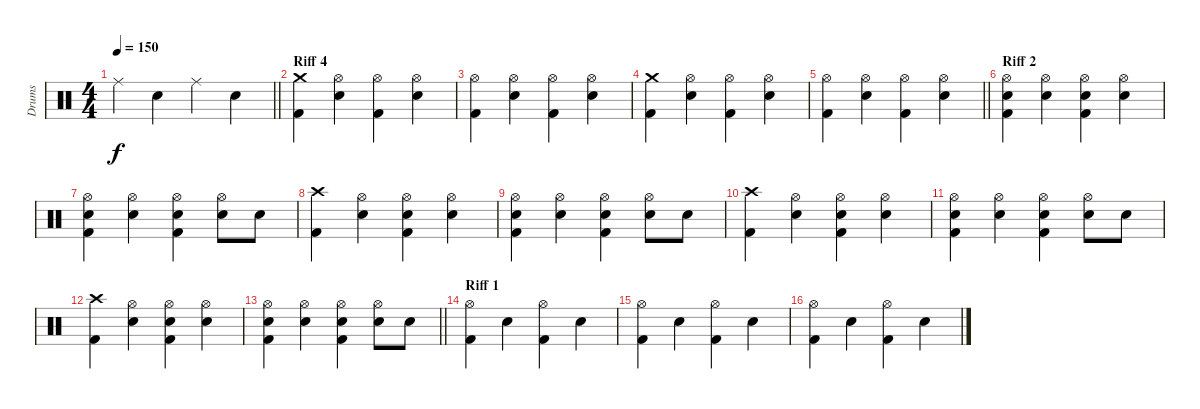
\track ("Drums" "Drums") {instrument percussion}
\staff
\articulation defaults
\ts (4 4)
\tempo 150
\clef neutral
\barLineRight lightlight
\ks c "Ride (middle)".4{dy f} "Snare (hit) 2".4 "Ride (middle)".4 "Snare (hit) 2".4
|
\section ("" "Riff 4")
("Crash medium (hit)" "Kick (hit) 2").4 ("Hi-Hat (open)" "Snare (hit) 2").4 ("Hi-Hat (open)" "Kick (hit) 2").4 ("Hi-Hat (open)" "Snare (hit) 2").4 |
("Hi-Hat (open)" "Kick (hit) 2").4 ("Hi-Hat (open)" "Snare (hit) 2").4 ("Hi-Hat (open)" "Kick (hit) 2").4 ("Hi-Hat (open)" "Snare (hit) 2").4 |
("Crash medium (hit)" "Kick (hit) 2").4 ("Hi-Hat (open)" "Snare (hit) 2").4 ("Hi-Hat (open)" "Kick (hit) 2").4 ("Hi-Hat (open)" "Snare (hit) 2").4 |
\barLineRight lightlight
("Hi-Hat (open)" "Kick (hit) 2").4 ("Hi-Hat (open)" "Snare (hit) 2").4 ("Hi-Hat (open)" "Kick (hit) 2").4 ("Hi-Hat (open)" "Snare (hit) 2").4 |
\section ("" "Riff 2")
("Hi-Hat (open)" "Snare (hit) 2" "Kick (hit) 2").4 ("Hi-Hat (open)" "Snare (hit) 2").4 ("Hi-Hat (open)" "Snare (hit) 2" "Kick (hit) 2").4 ("Hi-Hat (open)" "Snare (hit) 2").4 |
("Hi-Hat (open)" "Snare (hit) 2" "Kick (hit) 2").4 ("Hi-Hat (open)" "Snare (hit) 2").4 ("Hi-Hat (open)" "Snare (hit) 2" "Kick (hit) 2").4 ("Hi-Hat (open)" "Snare (hit) 2").8 "Snare (hit) 2".8 |
("Crash high (hit)" "Kick (hit) 2").4 ("Hi-Hat (open)" "Snare (hit) 2").4 ("Hi-Hat (open)" "Snare (hit) 2" "Kick (hit) 2").4 ("Hi-Hat (open)" "Snare (hit) 2").4 |
("Hi-Hat (open)" "Snare (hit) 2" "Kick (hit) 2").4 ("Hi-Hat (open)" "Snare (hit) 2").4 ("Hi-Hat (open)" "Snare (hit) 2" "Kick (hit) 2").4 ("Hi-Hat (open)" "Snare (hit) 2").8 "Snare (hit) 2".8 |
("Crash high (hit)" "Kick (hit) 2").4 ("Hi-Hat (open)" "Snare (hit) 2").4 ("Hi-Hat (open)" "Snare (hit) 2" "Kick (hit) 2").4 ("Hi-Hat (open)" "Snare (hit) 2").4 |
("Hi-Hat (open)" "Snare (hit) 2" "Kick (hit) 2").4 ("Hi-Hat (open)" "Snare (hit) 2").4 ("Hi-Hat (open)" "Snare (hit) 2" "Kick (hit) 2").4 ("Hi-Hat (open)" "Snare (hit) 2").8 "Snare (hit) 2".8 |
("Crash high (hit)" "Kick (hit) 2").4 ("Hi-Hat (open)" "Snare (hit) 2").4 ("Hi-Hat (open)" "Snare (hit) 2" "Kick (hit) 2").4 ("Hi-Hat (open)" "Snare (hit) 2").4 |
\barLineRight lightlight
("Hi-Hat (open)" "Snare (hit) 2" "Kick (hit) 2").4 ("Hi-Hat (open)" "Snare (hit) 2").4 ("Hi-Hat (open)" "Snare (hit) 2" "Kick (hit) 2").4 ("Hi-Hat (open)" "Snare (hit) 2").8 "Snare (hit) 2".8 |
\section ("" "Riff 1")
("Hi-Hat (open)" "Kick (hit) 2").4 "Snare (hit) 2".4 ("Hi-Hat (open)" "Kick (hit) 2").4 "Snare (hit) 2".4 |
("Hi-Hat (open)" "Kick (hit) 2").4 "Snare (hit) 2".4 ("Hi-Hat (open)" "Kick (hit) 2").4 "Snare (hit) 2".4 |
("Hi-Hat (open)" "Kick (hit) 2").4 "Snare (hit) 2".4 ("Hi-Hat (open)" "Kick (hit) 2").4 "Snare (hit) 2".4
